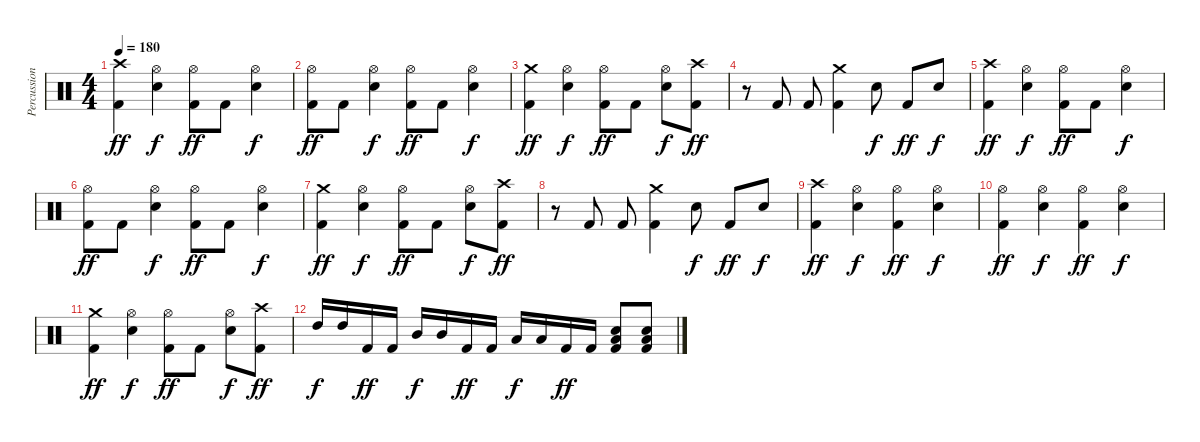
\track ("Percussion" "Percussion") {instrument percussion}
\staff {score}
\articulation defaults
\ts (4 4)
\tempo 180
\clef neutral
\ks c
("Crash high (hit)" "Kick (hit) 2").4{dy ff} ("Hi-Hat (open)" "Electric Snare (hit)").4{dy f} ("Hi-Hat (open)" "Kick (hit) 2").8{dy ff} "Kick (hit) 2".8 ("Hi-Hat (open)" "Electric Snare (hit)").4{dy f} |
("Hi-Hat (open)" "Kick (hit) 2").8{dy ff} "Kick (hit) 2".8 ("Hi-Hat (open)" "Electric Snare (hit)").4{dy f} ("Hi-Hat (open)" "Kick (hit) 2").8{dy ff} "Kick (hit) 2".8 ("Hi-Hat (open)" "Electric Snare (hit)").4{dy f} |
("Crash medium (hit)" "Kick (hit) 2").4{dy ff} ("Hi-Hat (open)" "Electric Snare (hit)").4{dy f} ("Hi-Hat (open)" "Kick (hit) 2").8{dy ff} "Kick (hit) 2".8 ("Hi-Hat (open)" "Electric Snare (hit)").8{dy f} ("Crash high (hit)" "Kick (hit) 2").8{dy ff} |
r.8 "Kick (hit) 2".8 "Kick (hit) 2".8 ("Crash medium (hit)" "Kick (hit) 2").4 "Electric Snare (hit)".8{dy f} "Kick (hit) 2".8{dy ff} "Electric Snare (hit)".8{dy f} |
("Crash high (hit)" "Kick (hit) 2").4{dy ff} ("Hi-Hat (open)" "Electric Snare (hit)").4{dy f} ("Hi-Hat (open)" "Kick (hit) 2").8{dy ff} "Kick (hit) 2".8 ("Hi-Hat (open)" "Electric Snare (hit)").4{dy f} |
("Hi-Hat (open)" "Kick (hit) 2").8{dy ff} "Kick (hit) 2".8 ("Hi-Hat (open)" "Electric Snare (hit)").4{dy f} ("Hi-Hat (open)" "Kick (hit) 2").8{dy ff} "Kick (hit) 2".8 ("Hi-Hat (open)" "Electric Snare (hit)").4{dy f} |
("Crash medium (hit)" "Kick (hit) 2").4{dy ff} ("Hi-Hat (open)" "Electric Snare (hit)").4{dy f} ("Hi-Hat (open)" "Kick (hit) 2").8{dy ff} "Kick (hit) 2".8 ("Hi-Hat (open)" "Electric Snare (hit)").8{dy f} ("Crash high (hit)" "Kick (hit) 2").8{dy ff} |
r.8 "Kick (hit) 2".8 "Kick (hit) 2".8 ("Crash medium (hit)" "Kick (hit) 2").4 "Electric Snare (hit)".8{dy f} "Kick (hit) 2".8{dy ff} "Electric Snare (hit)".8{dy f} |
("Crash high (hit)" "Kick (hit) 2").4{dy ff} ("Hi-Hat (open)" "Electric Snare (hit)").4{dy f} ("Hi-Hat (open)" "Kick (hit) 2").4{dy ff} ("Hi-Hat (open)" "Electric Snare (hit)").4{dy f} |
("Hi-Hat (open)" "Kick (hit) 2").4{dy ff} ("Hi-Hat (open)" "Electric Snare (hit)").4{dy f} ("Hi-Hat (open)" "Kick (hit) 2").4{dy ff} ("Hi-Hat (open)" "Electric Snare (hit)").4{dy f} |
("Crash medium (hit)" "Kick (hit) 2").4{dy ff} ("Hi-Hat (open)" "Electric Snare (hit)").4{dy f} ("Hi-Hat (open)" "Kick (hit) 2").8{dy ff} "Kick (hit) 2".8 ("Hi-Hat (open)" "Electric Snare (hit)").8{dy f} ("Crash high (hit)" "Kick (hit) 2").8{dy ff} |
"High Tom (hit)".16{dy f} "High Tom (hit)".16 "Kick (hit) 2".16{dy ff} "Kick (hit) 2".16 "Mid Tom (hit)".16{dy f} "Mid Tom (hit)".16 "Kick (hit) 2".16{dy ff} "Kick (hit) 2".16 "Low Tom (hit)".16{dy f} "Low Tom (hit)".16 "Kick (hit) 2".16{dy ff} "Kick (hit) 2".16 ("Electric Snare (hit)" "Low Floor Tom (hit)" "Kick (hit) 2").8 ("Electric Snare (hit)" "Low Floor Tom (hit)" "Kick (hit) 2").8
